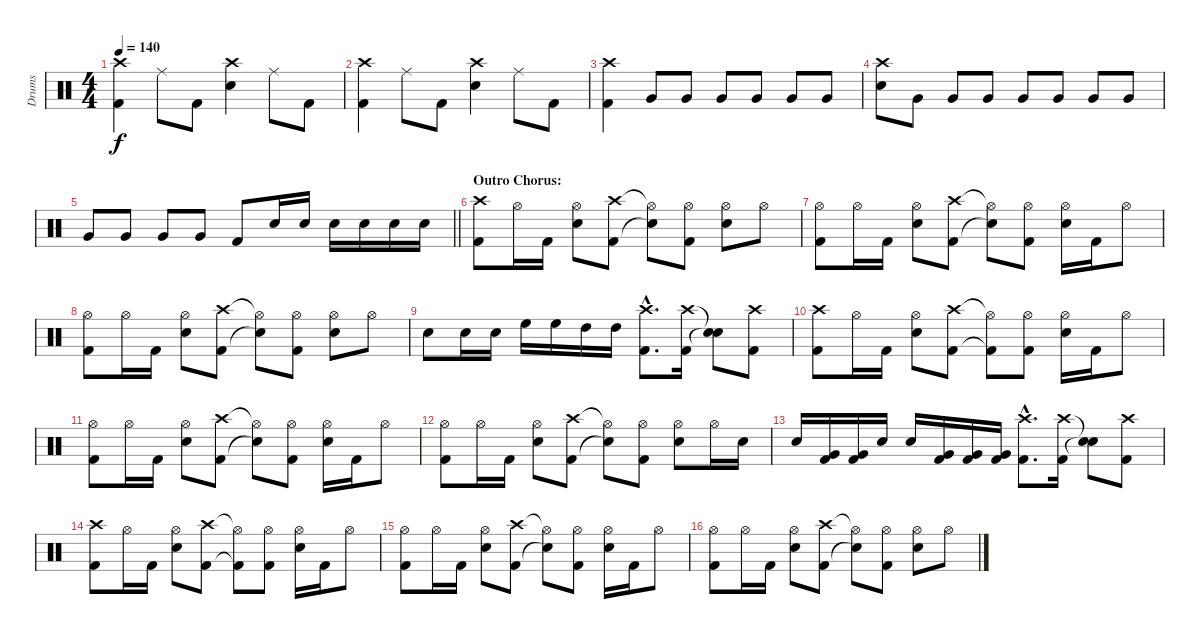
\track ("Drums" "Drums") {instrument percussion}
\staff {score}
\articulation defaults
\ts (4 4)
\tempo 140
\clef neutral
\ks c
("Crash high (hit)" "Kick (hit) 2").4{dy f} "Ride (middle)".8 "Kick (hit) 2".8 ("Crash high (hit)" "Snare (hit) 2").4 "Ride (middle)".8 "Kick (hit) 2".8 |
("Crash high (hit)" "Kick (hit) 2").4 "Ride (middle)".8 "Kick (hit) 2".8 ("Crash high (hit)" "Snare (hit) 2").4 "Ride (middle)".8 "Kick (hit) 2".8 |
("Crash high (hit)" "Kick (hit) 2").4 "Very Low Tom (hit)".8 "Very Low Tom (hit)".8 "Very Low Tom (hit)".8 "Very Low Tom (hit)".8 "Very Low Tom (hit)".8 "Very Low Tom (hit)".8 |
("Crash high (hit)" "Snare (hit) 2").8 "Very Low Tom (hit)".8 "Very Low Tom (hit)".8 "Very Low Tom (hit)".8 "Very Low Tom (hit)".8 "Very Low Tom (hit)".8 "Very Low Tom (hit)".8 "Very Low Tom (hit)".8 |
\barLineRight lightlight "Very Low Tom (hit)".8 "Very Low Tom (hit)".8 "Very Low Tom (hit)".8 "Very Low Tom (hit)".8 "Kick (hit) 2".8 "Snare (hit) 2".16 "Snare (hit) 2".16 "Snare (hit) 2".16 "Snare (hit) 2".16 "Snare (hit) 2".16 "Snare (hit) 2".16
|
\section ("" "Outro Chorus:")
("Crash high (hit)" "Kick (hit) 2").8 "Hi-Hat (open)".16 "Kick (hit) 2".16 ("Hi-Hat (open)" "Snare (hit) 2").8 ("Crash high (hit)" "Kick (hit) 2").8 ("Hi-Hat (open)"{t} "Snare (hit)"{t}).8 ("Hi-Hat (open)" "Kick (hit) 2").8 ("Hi-Hat (open)" "Snare (hit) 2").8 "Hi-Hat (open)".8 |
("Hi-Hat (open)" "Kick (hit) 2").8 "Hi-Hat (open)".16 "Kick (hit) 2".16 ("Hi-Hat (open)" "Snare (hit) 2").8 ("Crash high (hit)" "Kick (hit) 2").8 ("Hi-Hat (open)"{t} "Snare (hit)"{t}).8 ("Hi-Hat (open)" "Kick (hit) 2").8 ("Hi-Hat (open)" "Snare (hit) 2").16 "Kick (hit) 2".16 "Hi-Hat (open)".8 |
("Hi-Hat (open)" "Kick (hit) 2").8 "Hi-Hat (open)".16 "Kick (hit) 2".16 ("Hi-Hat (open)" "Snare (hit) 2").8 ("Crash high (hit)" "Kick (hit) 2").8 ("Hi-Hat (open)"{t} "Snare (hit)"{t}).8 ("Hi-Hat (open)" "Kick (hit) 2").8 ("Hi-Hat (open)" "Snare (hit) 2").8 "Hi-Hat (open)".8 |
"Snare (hit) 2".8 "Snare (hit) 2".16 "Snare (hit) 2".16 "High Floor Tom (hit)".16 "High Floor Tom (hit)".16 "High Tom (hit)".16 "High Tom (hit)".16 ("Crash high (hit)"{hac} "Kick (hit) 2"{hac}).8{d} ("Crash high (hit)" "Kick (hit) 2").16 ("Snare (hit)"{t} "Snare (hit)"{t}).8 ("Crash high (hit)" "Kick (hit) 2").8 |
("Crash high (hit)" "Kick (hit) 2").8 "Hi-Hat (open)".16 "Kick (hit) 2".16 ("Hi-Hat (open)" "Snare (hit) 2").8 ("Crash high (hit)" "Kick (hit) 2").8 ("Hi-Hat (open)"{t} "Kick (hit) 2"{t}).8 ("Hi-Hat (open)" "Kick (hit) 2").8 ("Hi-Hat (open)" "Snare (hit) 2").16 "Kick (hit) 2".16 "Hi-Hat (open)".8 |
("Hi-Hat (open)" "Kick (hit) 2").8 "Hi-Hat (open)".16 "Kick (hit) 2".16 ("Hi-Hat (open)" "Snare (hit) 2").8 ("Crash high (hit)" "Kick (hit) 2").8 ("Hi-Hat (open)"{t} "Snare (hit)"{t}).8 ("Hi-Hat (open)" "Kick (hit) 2").8 ("Hi-Hat (open)" "Snare (hit) 2").16 "Kick (hit) 2".16 "Hi-Hat (open)".8 |
("Hi-Hat (open)" "Kick (hit) 2").8 "Hi-Hat (open)".16 "Kick (hit) 2".16 ("Hi-Hat (open)" "Snare (hit) 2").8 ("Crash high (hit)" "Kick (hit) 2").8 ("Hi-Hat (open)"{t} "Snare (hit)"{t}).8 ("Hi-Hat (open)" "Kick (hit) 2").8 ("Hi-Hat (open)" "Snare (hit) 2").8 "Hi-Hat (open)".16 "Snare (hit) 2".16 |
"Snare (hit) 2".16 ("Very Low Tom (hit)" "Kick (hit) 2").16 ("Very Low Tom (hit)" "Kick (hit) 2").16 "Snare (hit) 2".16 "Snare (hit) 2".16 ("Very Low Tom (hit)" "Kick (hit) 2").16 ("Very Low Tom (hit)" "Kick (hit) 2").16 ("Very Low Tom (hit)" "Kick (hit) 2").16 ("Crash high (hit)"{hac} "Kick (hit) 2"{hac}).8{d} ("Crash high (hit)" "Kick (hit) 2").16 ("Snare (hit)"{t} "Snare (hit)"{t}).8 ("Crash high (hit)" "Kick (hit) 2").8 |
("Crash high (hit)" "Kick (hit) 2").8 "Hi-Hat (open)".16 "Kick (hit) 2".16 ("Hi-Hat (open)" "Snare (hit) 2").8 ("Crash high (hit)" "Kick (hit) 2").8 ("Hi-Hat (open)"{t} "Kick (hit) 2"{t}).8 ("Hi-Hat (open)" "Kick (hit) 2").8 ("Hi-Hat (open)" "Snare (hit) 2").16 "Kick (hit) 2".16 "Hi-Hat (open)".8 |
("Hi-Hat (open)" "Kick (hit) 2").8 "Hi-Hat (open)".16 "Kick (hit) 2".16 ("Hi-Hat (open)" "Snare (hit) 2").8 ("Crash high (hit)" "Kick (hit) 2").8 ("Hi-Hat (open)"{t} "Snare (hit)"{t}).8 ("Hi-Hat (open)" "Kick (hit) 2").8 ("Hi-Hat (open)" "Snare (hit) 2").16 "Kick (hit) 2".16 "Hi-Hat (open)".8 |
("Hi-Hat (open)" "Kick (hit) 2").8 "Hi-Hat (open)".16 "Kick (hit) 2".16 ("Hi-Hat (open)" "Snare (hit) 2").8 ("Crash high (hit)" "Kick (hit) 2").8 ("Hi-Hat (open)"{t} "Snare (hit)"{t}).8 ("Hi-Hat (open)" "Kick (hit) 2").8 ("Hi-Hat (open)" "Snare (hit) 2").8 "Hi-Hat (open)".8
